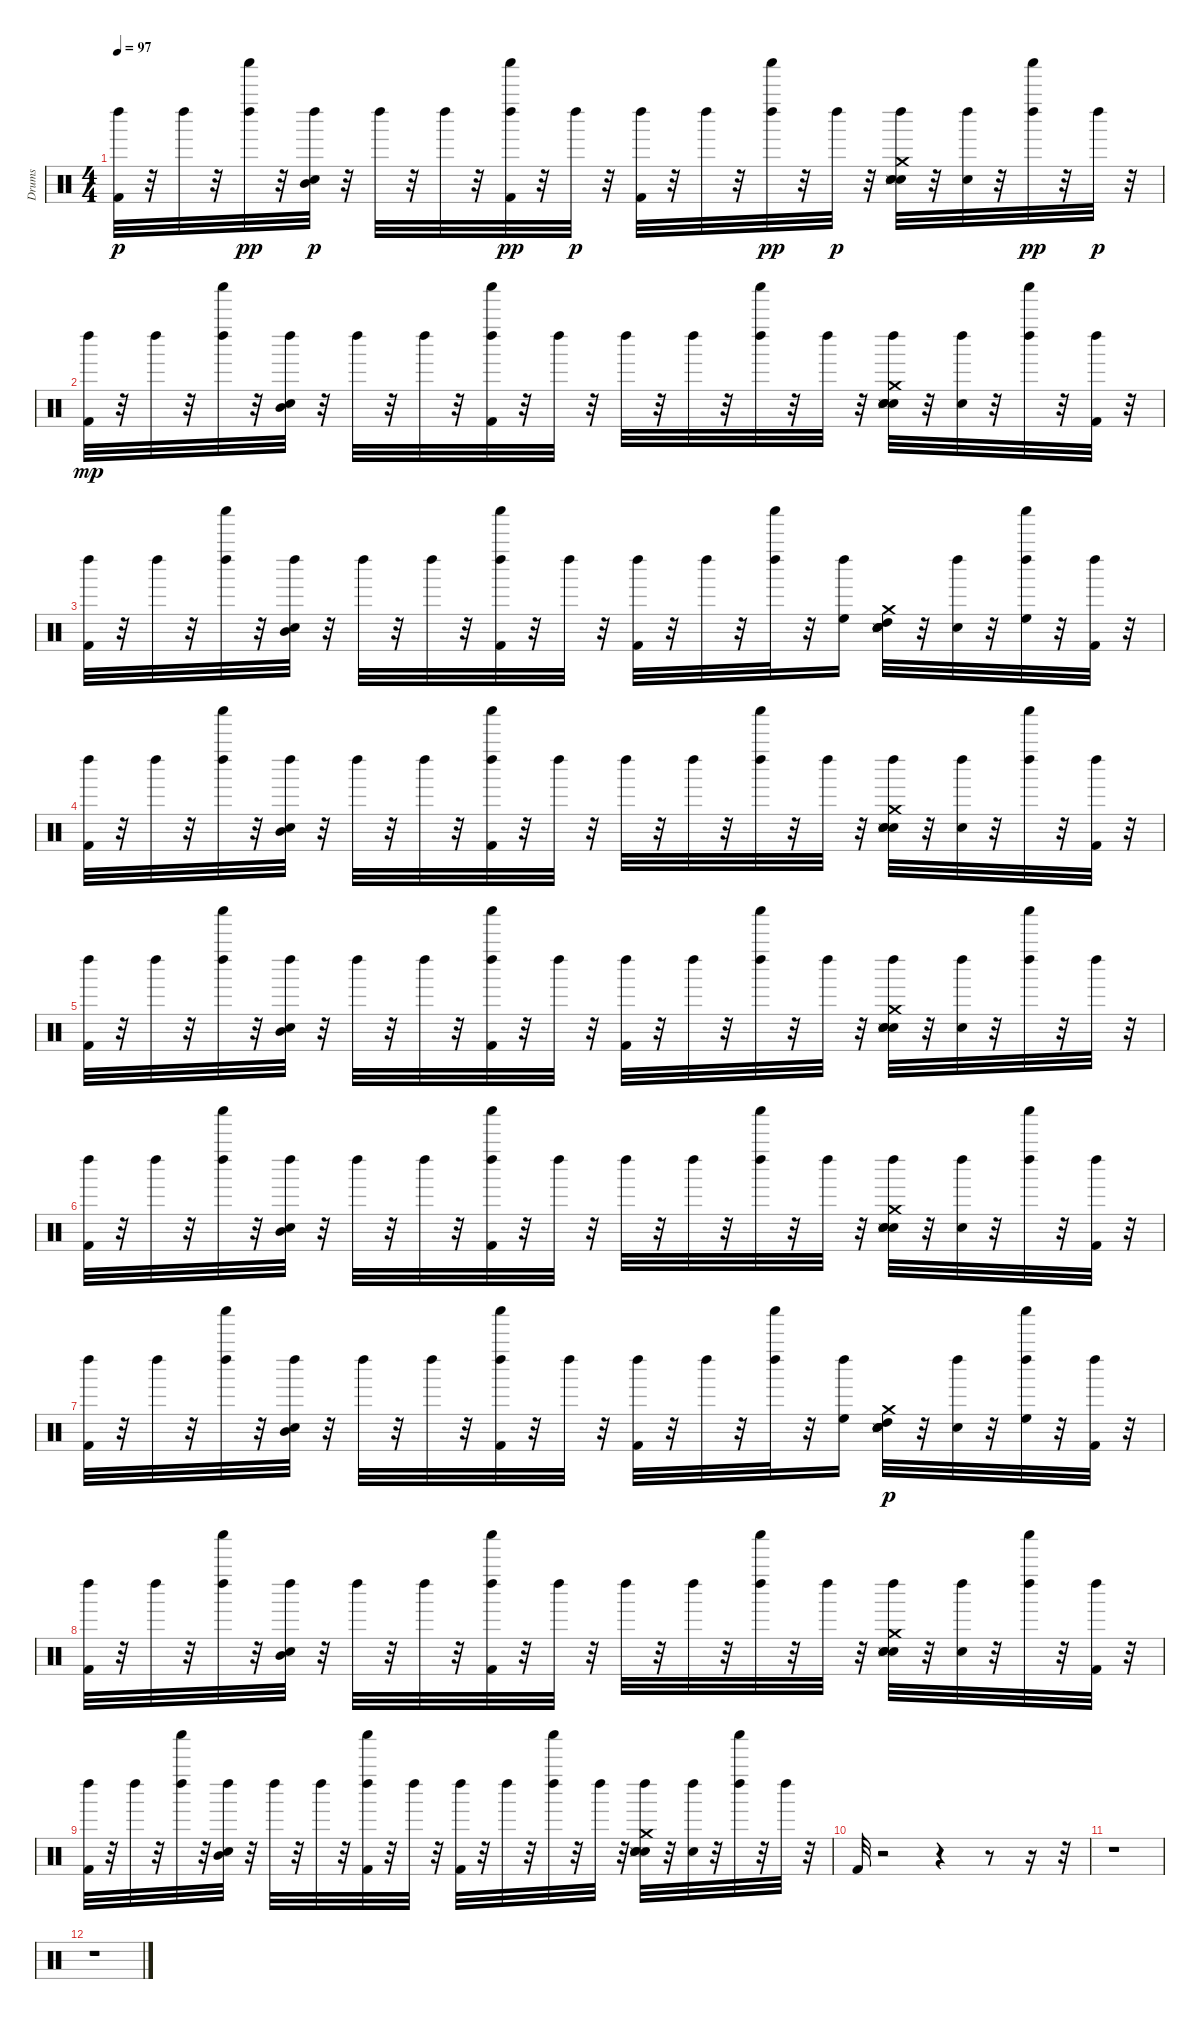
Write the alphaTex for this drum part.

\track ("Drums" "Drums") {instrument percussion}
\staff {score}
\articulation defaults
\ts (4 4)
\tempo 97
\clef neutral
\ks c
("Kick (hit) 2" "Left Maraca (hit)").32{dy p} r.32 "Left Maraca (hit)".32 r.32 ("Shaker (hit)" "Left Maraca (hit)").32{dy pp} r.32 ("Snare (hit) 2" "Mid Tom (hit)" "Left Maraca (hit)").32{dy p} r.32 "Left Maraca (hit)".32 r.32 "Left Maraca (hit)".32 r.32 ("Kick (hit) 2" "Shaker (hit)" "Left Maraca (hit)").32{dy pp} r.32 "Left Maraca (hit)".32{dy p} r.32 ("Kick (hit) 2" "Left Maraca (hit)").32 r.32 "Left Maraca (hit)".32 r.32 ("Shaker (hit)" "Left Maraca (hit)").32{dy pp} r.32 "Left Maraca (hit)".32{dy p} r.32 ("Snare (hit) 2" "Electric Snare (hit)" "Hand Clap (hit)" "Snare (side stick) 3" "Crash medium (hit)" "Left Maraca (hit)").32 r.32 ("Left Maraca (hit)" "Hand Clap (hit)").32 r.32 ("Shaker (hit)" "Left Maraca (hit)").32{dy pp} r.32 "Left Maraca (hit)".32{dy p} r.32 |
("Kick (hit) 2" "Left Maraca (hit)").32{dy mp} r.32 "Left Maraca (hit)".32 r.32 ("Shaker (hit)" "Left Maraca (hit)").32 r.32 ("Snare (hit) 2" "Mid Tom (hit)" "Left Maraca (hit)").32 r.32 "Left Maraca (hit)".32 r.32 "Left Maraca (hit)".32 r.32 ("Kick (hit) 2" "Shaker (hit)" "Left Maraca (hit)").32 r.32 "Left Maraca (hit)".32 r.32 "Left Maraca (hit)".32 r.32 "Left Maraca (hit)".32 r.32 ("Shaker (hit)" "Left Maraca (hit)").32 r.32 "Left Maraca (hit)".32 r.32 ("Snare (hit) 2" "Electric Snare (hit)" "Hand Clap (hit)" "Snare (side stick) 3" "Crash medium (hit)" "Left Maraca (hit)").32 r.32 ("Left Maraca (hit)" "Hand Clap (hit)").32 r.32 ("Shaker (hit)" "Left Maraca (hit)").32 r.32 ("Kick (hit) 2" "Left Maraca (hit)").32 r.32 |
("Kick (hit) 2" "Left Maraca (hit)").32 r.32 "Left Maraca (hit)".32 r.32 ("Shaker (hit)" "Left Maraca (hit)").32 r.32 ("Snare (hit) 2" "Mid Tom (hit)" "Left Maraca (hit)").32 r.32 "Left Maraca (hit)".32 r.32 "Left Maraca (hit)".32 r.32 ("Kick (hit) 2" "Shaker (hit)" "Left Maraca (hit)").32 r.32 "Left Maraca (hit)".32 r.32 ("Kick (hit) 2" "Left Maraca (hit)").32 r.32 "Left Maraca (hit)".32 r.32 ("Shaker (hit)" "Left Maraca (hit)").32 r.32 ("High Floor Tom (hit)" "Left Maraca (hit)").16 ("Snare (hit) 2" "Electric Snare (hit)" "Hand Clap (hit)" "High Tom (hit)" "Snare (side stick) 3" "Crash medium (hit)").32 r.32 ("Left Maraca (hit)" "Hand Clap (hit)").32 r.32 ("High Floor Tom (hit)" "Shaker (hit)" "Left Maraca (hit)").32 r.32 ("Kick (hit) 2" "Left Maraca (hit)").32 r.32 |
("Kick (hit) 2" "Left Maraca (hit)").32 r.32 "Left Maraca (hit)".32 r.32 ("Shaker (hit)" "Left Maraca (hit)").32 r.32 ("Snare (hit) 2" "Mid Tom (hit)" "Left Maraca (hit)").32 r.32 "Left Maraca (hit)".32 r.32 "Left Maraca (hit)".32 r.32 ("Kick (hit) 2" "Shaker (hit)" "Left Maraca (hit)").32 r.32 "Left Maraca (hit)".32 r.32 "Left Maraca (hit)".32 r.32 "Left Maraca (hit)".32 r.32 ("Shaker (hit)" "Left Maraca (hit)").32 r.32 "Left Maraca (hit)".32 r.32 ("Snare (hit) 2" "Electric Snare (hit)" "Hand Clap (hit)" "Snare (side stick) 3" "Crash medium (hit)" "Left Maraca (hit)").32 r.32 ("Left Maraca (hit)" "Hand Clap (hit)").32 r.32 ("Shaker (hit)" "Left Maraca (hit)").32 r.32 ("Kick (hit) 2" "Left Maraca (hit)").32 r.32 |
("Kick (hit) 2" "Left Maraca (hit)").32 r.32 "Left Maraca (hit)".32 r.32 ("Shaker (hit)" "Left Maraca (hit)").32 r.32 ("Snare (hit) 2" "Mid Tom (hit)" "Left Maraca (hit)").32 r.32 "Left Maraca (hit)".32 r.32 "Left Maraca (hit)".32 r.32 ("Kick (hit) 2" "Shaker (hit)" "Left Maraca (hit)").32 r.32 "Left Maraca (hit)".32 r.32 ("Kick (hit) 2" "Left Maraca (hit)").32 r.32 "Left Maraca (hit)".32 r.32 ("Shaker (hit)" "Left Maraca (hit)").32 r.32 "Left Maraca (hit)".32 r.32 ("Snare (hit) 2" "Electric Snare (hit)" "Hand Clap (hit)" "Snare (side stick) 3" "Crash medium (hit)" "Left Maraca (hit)").32 r.32 ("Left Maraca (hit)" "Hand Clap (hit)").32 r.32 ("Shaker (hit)" "Left Maraca (hit)").32 r.32 "Left Maraca (hit)".32 r.32 |
("Kick (hit) 2" "Left Maraca (hit)").32 r.32 "Left Maraca (hit)".32 r.32 ("Shaker (hit)" "Left Maraca (hit)").32 r.32 ("Snare (hit) 2" "Mid Tom (hit)" "Left Maraca (hit)").32 r.32 "Left Maraca (hit)".32 r.32 "Left Maraca (hit)".32 r.32 ("Kick (hit) 2" "Shaker (hit)" "Left Maraca (hit)").32 r.32 "Left Maraca (hit)".32 r.32 "Left Maraca (hit)".32 r.32 "Left Maraca (hit)".32 r.32 ("Shaker (hit)" "Left Maraca (hit)").32 r.32 "Left Maraca (hit)".32 r.32 ("Snare (hit) 2" "Electric Snare (hit)" "Hand Clap (hit)" "Snare (side stick) 3" "Crash medium (hit)" "Left Maraca (hit)").32 r.32 ("Left Maraca (hit)" "Hand Clap (hit)").32 r.32 ("Shaker (hit)" "Left Maraca (hit)").32 r.32 ("Kick (hit) 2" "Left Maraca (hit)").32 r.32 |
("Kick (hit) 2" "Left Maraca (hit)").32 r.32 "Left Maraca (hit)".32 r.32 ("Shaker (hit)" "Left Maraca (hit)").32 r.32 ("Snare (hit) 2" "Mid Tom (hit)" "Left Maraca (hit)").32 r.32 "Left Maraca (hit)".32 r.32 "Left Maraca (hit)".32 r.32 ("Kick (hit) 2" "Shaker (hit)" "Left Maraca (hit)").32 r.32 "Left Maraca (hit)".32 r.32 ("Kick (hit) 2" "Left Maraca (hit)").32 r.32 "Left Maraca (hit)".32 r.32 ("Shaker (hit)" "Left Maraca (hit)").32 r.32 ("High Floor Tom (hit)" "Left Maraca (hit)").16 ("Snare (hit) 2" "Electric Snare (hit)" "Hand Clap (hit)" "High Tom (hit)" "Snare (side stick) 3" "Crash medium (hit)").32{dy p} r.32 ("Left Maraca (hit)" "Hand Clap (hit)").32 r.32 ("High Floor Tom (hit)" "Shaker (hit)" "Left Maraca (hit)").32 r.32 ("Kick (hit) 2" "Left Maraca (hit)").32 r.32 |
("Kick (hit) 2" "Left Maraca (hit)").32 r.32 "Left Maraca (hit)".32 r.32 ("Shaker (hit)" "Left Maraca (hit)").32 r.32 ("Snare (hit) 2" "Mid Tom (hit)" "Left Maraca (hit)").32 r.32 "Left Maraca (hit)".32 r.32 "Left Maraca (hit)".32 r.32 ("Kick (hit) 2" "Shaker (hit)" "Left Maraca (hit)").32 r.32 "Left Maraca (hit)".32 r.32 "Left Maraca (hit)".32 r.32 "Left Maraca (hit)".32 r.32 ("Shaker (hit)" "Left Maraca (hit)").32 r.32 "Left Maraca (hit)".32 r.32 ("Snare (hit) 2" "Electric Snare (hit)" "Hand Clap (hit)" "Snare (side stick) 3" "Crash medium (hit)" "Left Maraca (hit)").32 r.32 ("Left Maraca (hit)" "Hand Clap (hit)").32 r.32 ("Shaker (hit)" "Left Maraca (hit)").32 r.32 ("Kick (hit) 2" "Left Maraca (hit)").32 r.32 |
("Kick (hit) 2" "Left Maraca (hit)").32 r.32 "Left Maraca (hit)".32 r.32 ("Shaker (hit)" "Left Maraca (hit)").32 r.32 ("Snare (hit) 2" "Mid Tom (hit)" "Left Maraca (hit)").32 r.32 "Left Maraca (hit)".32 r.32 "Left Maraca (hit)".32 r.32 ("Kick (hit) 2" "Shaker (hit)" "Left Maraca (hit)").32 r.32 "Left Maraca (hit)".32 r.32 ("Kick (hit) 2" "Left Maraca (hit)").32 r.32 "Left Maraca (hit)".32 r.32 ("Shaker (hit)" "Left Maraca (hit)").32 r.32 "Left Maraca (hit)".32 r.32 ("Snare (hit) 2" "Electric Snare (hit)" "Hand Clap (hit)" "Snare (side stick) 3" "Crash medium (hit)" "Left Maraca (hit)").32 r.32 ("Left Maraca (hit)" "Hand Clap (hit)").32 r.32 ("Shaker (hit)" "Left Maraca (hit)").32 r.32 "Left Maraca (hit)".32 r.32 |
"Kick (hit) 2".32 r.2 r.4 r.8 r.16 r.32 |
r.1 |
r.1
